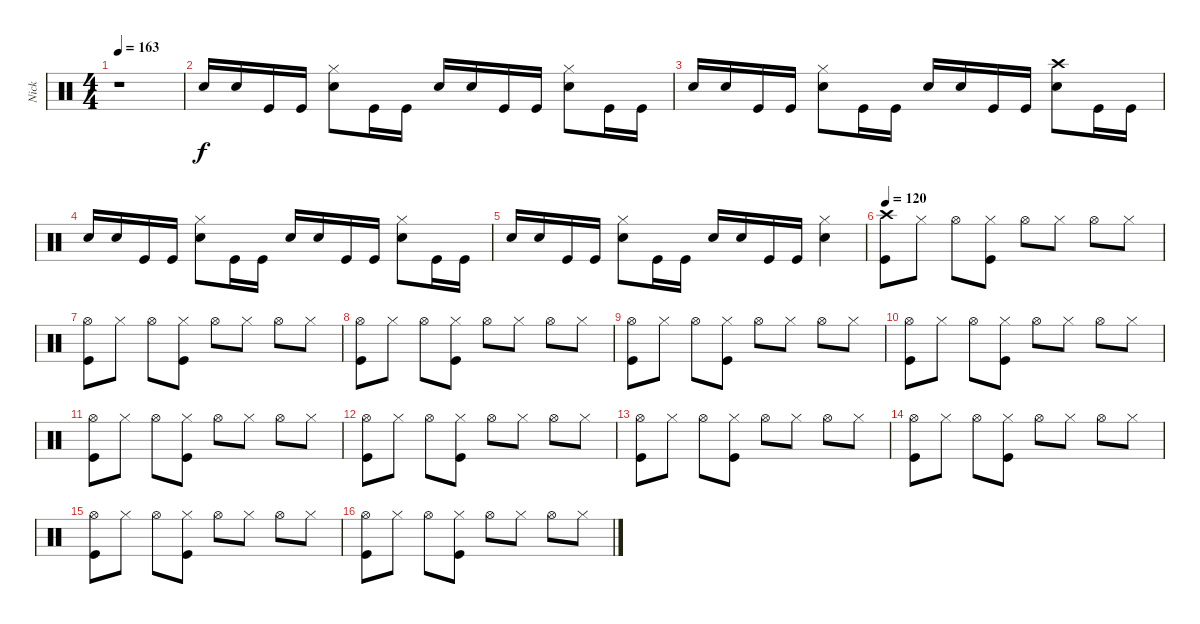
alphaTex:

\track ("Nick" "Nick") {instrument percussion}
\staff {score}
\articulation defaults
\ts (4 4)
\tempo 163
\clef neutral
\ks c
r.1{dy f} |
"Snare (hit) 2".16 "Snare (hit) 2".16 "Kick (hit)".16 "Kick (hit)".16 ("Hi-Hat (closed)" "Snare (hit) 2").8 "Kick (hit)".16 "Kick (hit)".16 "Snare (hit) 2".16 "Snare (hit) 2".16 "Kick (hit)".16 "Kick (hit)".16 ("Hi-Hat (closed)" "Snare (hit) 2").8 "Kick (hit)".16 "Kick (hit)".16 |
"Snare (hit) 2".16 "Snare (hit) 2".16 "Kick (hit)".16 "Kick (hit)".16 ("Hi-Hat (closed)" "Snare (hit) 2").8 "Kick (hit)".16 "Kick (hit)".16 "Snare (hit) 2".16 "Snare (hit) 2".16 "Kick (hit)".16 "Kick (hit)".16 ("Crash high (hit)" "Snare (hit) 2").8 "Kick (hit)".16 "Kick (hit)".16 |
"Snare (hit) 2".16 "Snare (hit) 2".16 "Kick (hit)".16 "Kick (hit)".16 ("Hi-Hat (closed)" "Snare (hit) 2").8 "Kick (hit)".16 "Kick (hit)".16 "Snare (hit) 2".16 "Snare (hit) 2".16 "Kick (hit)".16 "Kick (hit)".16 ("Hi-Hat (closed)" "Snare (hit) 2").8 "Kick (hit)".16 "Kick (hit)".16 |
"Snare (hit) 2".16 "Snare (hit) 2".16 "Kick (hit)".16 "Kick (hit)".16 ("Hi-Hat (closed)" "Snare (hit) 2").8 "Kick (hit)".16 "Kick (hit)".16 "Snare (hit) 2".16 "Snare (hit) 2".16 "Kick (hit)".16 "Kick (hit)".16 ("Hi-Hat (closed)" "Snare (hit) 2").4 |
\tempo 120
("Kick (hit)" "Crash high (hit)").8 "Hi-Hat (closed)".8 "Hi-Hat (open)".8 ("Kick (hit)" "Hi-Hat (closed)").8 "Hi-Hat (open)".8 "Hi-Hat (closed)".8 "Hi-Hat (open)".8 "Hi-Hat (closed)".8 |
("Kick (hit)" "Hi-Hat (open)").8 "Hi-Hat (closed)".8 "Hi-Hat (open)".8 ("Kick (hit)" "Hi-Hat (closed)").8 "Hi-Hat (open)".8 "Hi-Hat (closed)".8 "Hi-Hat (open)".8 "Hi-Hat (closed)".8 |
("Kick (hit)" "Hi-Hat (open)").8 "Hi-Hat (closed)".8 "Hi-Hat (open)".8 ("Kick (hit)" "Hi-Hat (closed)").8 "Hi-Hat (open)".8 "Hi-Hat (closed)".8 "Hi-Hat (open)".8 "Hi-Hat (closed)".8 |
("Kick (hit)" "Hi-Hat (open)").8 "Hi-Hat (closed)".8 "Hi-Hat (open)".8 ("Kick (hit)" "Hi-Hat (closed)").8 "Hi-Hat (open)".8 "Hi-Hat (closed)".8 "Hi-Hat (open)".8 "Hi-Hat (closed)".8 |
("Kick (hit)" "Hi-Hat (open)").8 "Hi-Hat (closed)".8 "Hi-Hat (open)".8 ("Kick (hit)" "Hi-Hat (closed)").8 "Hi-Hat (open)".8 "Hi-Hat (closed)".8 "Hi-Hat (open)".8 "Hi-Hat (closed)".8 |
("Kick (hit)" "Hi-Hat (open)").8 "Hi-Hat (closed)".8 "Hi-Hat (open)".8 ("Kick (hit)" "Hi-Hat (closed)").8 "Hi-Hat (open)".8 "Hi-Hat (closed)".8 "Hi-Hat (open)".8 "Hi-Hat (closed)".8 |
("Kick (hit)" "Hi-Hat (open)").8 "Hi-Hat (closed)".8 "Hi-Hat (open)".8 ("Kick (hit)" "Hi-Hat (closed)").8 "Hi-Hat (open)".8 "Hi-Hat (closed)".8 "Hi-Hat (open)".8 "Hi-Hat (closed)".8 |
("Kick (hit)" "Hi-Hat (open)").8 "Hi-Hat (closed)".8 "Hi-Hat (open)".8 ("Kick (hit)" "Hi-Hat (closed)").8 "Hi-Hat (open)".8 "Hi-Hat (closed)".8 "Hi-Hat (open)".8 "Hi-Hat (closed)".8 |
("Kick (hit)" "Hi-Hat (open)").8 "Hi-Hat (closed)".8 "Hi-Hat (open)".8 ("Kick (hit)" "Hi-Hat (closed)").8 "Hi-Hat (open)".8 "Hi-Hat (closed)".8 "Hi-Hat (open)".8 "Hi-Hat (closed)".8 |
("Kick (hit)" "Hi-Hat (open)").8 "Hi-Hat (closed)".8 "Hi-Hat (open)".8 ("Kick (hit)" "Hi-Hat (closed)").8 "Hi-Hat (open)".8 "Hi-Hat (closed)".8 "Hi-Hat (open)".8 "Hi-Hat (closed)".8 |
("Kick (hit)" "Hi-Hat (open)").8 "Hi-Hat (closed)".8 "Hi-Hat (open)".8 ("Kick (hit)" "Hi-Hat (closed)").8 "Hi-Hat (open)".8 "Hi-Hat (closed)".8 "Hi-Hat (open)".8 "Hi-Hat (closed)".8
